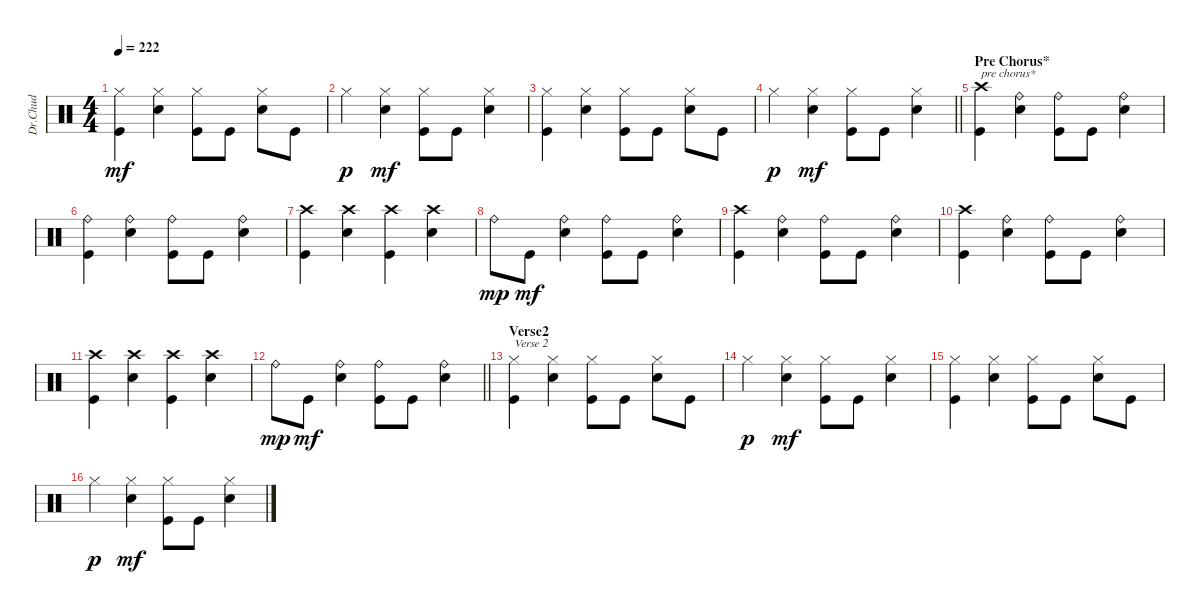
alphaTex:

\track ("Dr.Chud" "Dr.Chud") {instrument percussion}
\staff {score}
\articulation defaults
\ts (4 4)
\tempo 222
\clef neutral
\ks c
("Hi-Hat (closed)" "Kick (hit)").4{dy mf} ("Hi-Hat (closed)" "Electric Snare (hit)").4 ("Hi-Hat (closed)" "Kick (hit)").8 "Kick (hit)".8 ("Hi-Hat (closed)" "Electric Snare (hit)").8 "Kick (hit)".8 |
"Hi-Hat (closed)".4{dy p} ("Hi-Hat (closed)" "Electric Snare (hit)").4{dy mf} ("Hi-Hat (closed)" "Kick (hit)").8 "Kick (hit)".8 ("Hi-Hat (closed)" "Electric Snare (hit)").4 |
("Hi-Hat (closed)" "Kick (hit)").4 ("Hi-Hat (closed)" "Electric Snare (hit)").4 ("Hi-Hat (closed)" "Kick (hit)").8 "Kick (hit)".8 ("Hi-Hat (closed)" "Electric Snare (hit)").8 "Kick (hit)".8 |
\barLineRight lightlight "Hi-Hat (closed)".4{dy p}
("Hi-Hat (closed)" "Electric Snare (hit)").4{dy mf} ("Hi-Hat (closed)" "Kick (hit)").8 "Kick (hit)".8 ("Hi-Hat (closed)" "Electric Snare (hit)").4 |
\section ("" "Pre Chorus*")
("Crash high (hit)" "Kick (hit)").4{txt "pre chorus*"} ("Ride (bell)" "Electric Snare (hit)").4 ("Ride (bell)" "Kick (hit)").8 "Kick (hit)".8 ("Ride (bell)" "Electric Snare (hit)").4 |
("Ride (bell)" "Kick (hit)").4 ("Ride (bell)" "Electric Snare (hit)").4 ("Ride (bell)" "Kick (hit)").8 "Kick (hit)".8 ("Ride (bell)" "Electric Snare (hit)").4 |
("Crash high (hit)" "Kick (hit)").4 ("Crash high (hit)" "Electric Snare (hit)").4 ("Crash high (hit)" "Kick (hit)").4 ("Crash high (hit)" "Electric Snare (hit)").4 |
"Ride (bell)".8{dy mp} "Kick (hit)".8{dy mf} ("Ride (bell)" "Electric Snare (hit)").4 ("Ride (bell)" "Kick (hit)").8 "Kick (hit)".8 ("Ride (bell)" "Electric Snare (hit)").4 |
("Crash high (hit)" "Kick (hit)").4 ("Ride (bell)" "Electric Snare (hit)").4 ("Ride (bell)" "Kick (hit)").8 "Kick (hit)".8 ("Ride (bell)" "Electric Snare (hit)").4 |
("Crash high (hit)" "Kick (hit)").4 ("Ride (bell)" "Electric Snare (hit)").4 ("Ride (bell)" "Kick (hit)").8 "Kick (hit)".8 ("Ride (bell)" "Electric Snare (hit)").4 |
("Crash high (hit)" "Kick (hit)").4 ("Crash high (hit)" "Electric Snare (hit)").4 ("Crash high (hit)" "Kick (hit)").4 ("Crash high (hit)" "Electric Snare (hit)").4 |
\barLineRight lightlight "Ride (bell)".8{dy mp} "Kick (hit)".8{dy mf}
("Ride (bell)" "Electric Snare (hit)").4 ("Ride (bell)" "Kick (hit)").8 "Kick (hit)".8 ("Ride (bell)" "Electric Snare (hit)").4 |
\section ("" "Verse2")
("Hi-Hat (closed)" "Kick (hit)").4{txt "Verse 2"} ("Hi-Hat (closed)" "Electric Snare (hit)").4 ("Hi-Hat (closed)" "Kick (hit)").8 "Kick (hit)".8 ("Hi-Hat (closed)" "Electric Snare (hit)").8 "Kick (hit)".8 |
"Hi-Hat (closed)".4{dy p} ("Hi-Hat (closed)" "Electric Snare (hit)").4{dy mf} ("Hi-Hat (closed)" "Kick (hit)").8 "Kick (hit)".8 ("Hi-Hat (closed)" "Electric Snare (hit)").4 |
("Hi-Hat (closed)" "Kick (hit)").4 ("Hi-Hat (closed)" "Electric Snare (hit)").4 ("Hi-Hat (closed)" "Kick (hit)").8 "Kick (hit)".8 ("Hi-Hat (closed)" "Electric Snare (hit)").8 "Kick (hit)".8 |
"Hi-Hat (closed)".4{dy p} ("Hi-Hat (closed)" "Electric Snare (hit)").4{dy mf} ("Hi-Hat (closed)" "Kick (hit)").8 "Kick (hit)".8 ("Hi-Hat (closed)" "Electric Snare (hit)").4
